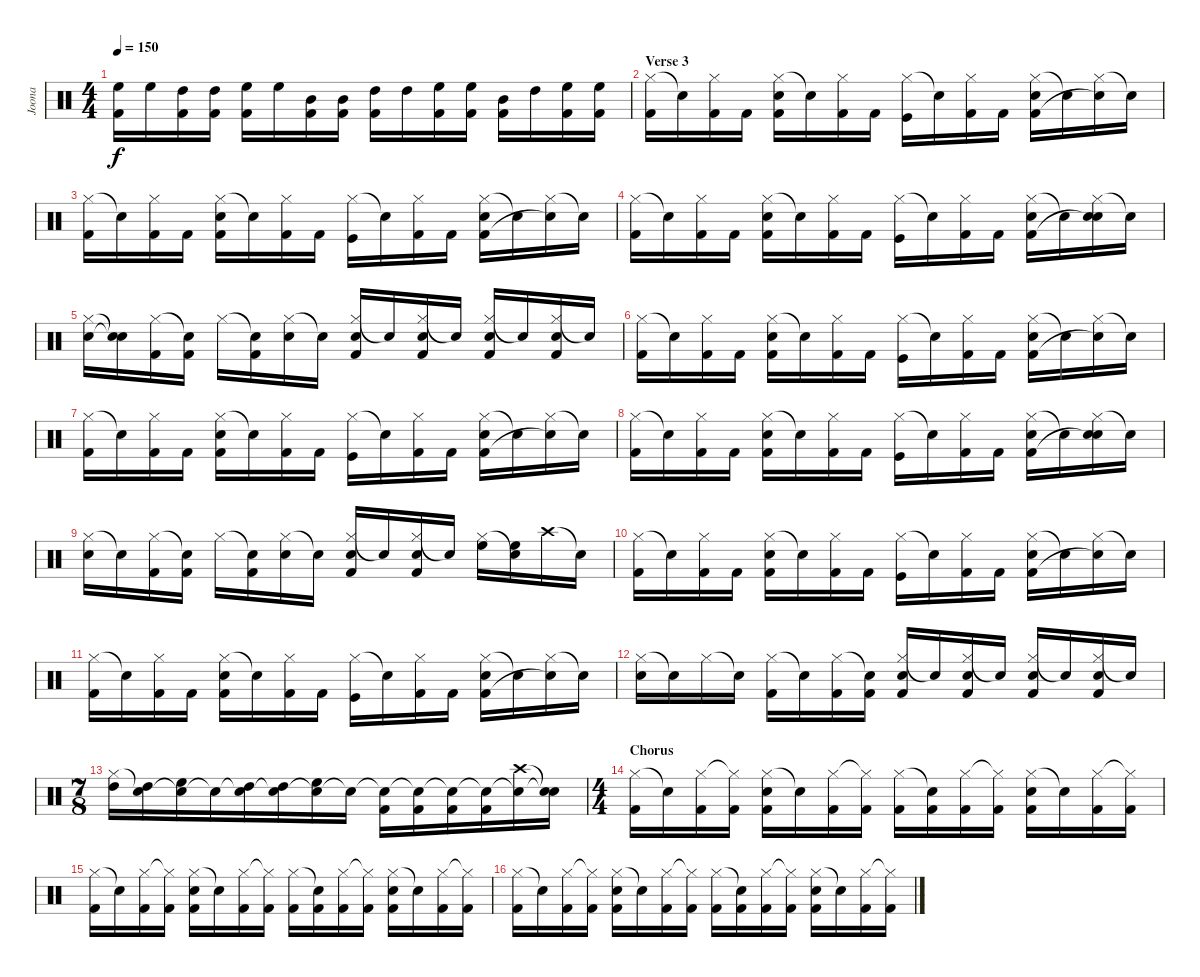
\track ("Joona" "Joona") {instrument percussion}
\staff {score}
\articulation defaults
\ts (4 4)
\tempo 150
\clef neutral
\ks c
("High Floor Tom (hit)" "Kick (hit) 2").16{dy f} "High Floor Tom (hit)".16 ("High Tom (hit)" "Kick (hit) 2").16 ("High Tom (hit)" "Kick (hit) 2").16 ("High Floor Tom (hit)" "Kick (hit) 2").16 "High Floor Tom (hit)".16 ("Mid Tom (hit)" "Kick (hit) 2").16 ("Mid Tom (hit)" "Kick (hit) 2").16 ("High Tom (hit)" "Kick (hit) 2").16 "High Tom (hit)".16 ("High Floor Tom (hit)" "Kick (hit) 2").16 ("High Floor Tom (hit)" "Kick (hit) 2").16 ("Mid Tom (hit)" "Kick (hit) 2").16 "High Tom (hit)".16 ("High Floor Tom (hit)" "Kick (hit) 2").16 ("High Floor Tom (hit)" "Kick (hit) 2").16 |
\section ("" "Verse 3")
("Hi-Hat (closed)" "Kick (hit) 2").16 "Snare (hit)"{t}.16 ("Hi-Hat (closed)" "Kick (hit) 2").16 "Kick (hit) 2".16 ("Hi-Hat (closed)" "Kick (hit) 2" "Snare (hit) 2").16 "Snare (hit)"{t}.16 ("Hi-Hat (closed)" "Kick (hit) 2").16 "Kick (hit) 2".16 ("Hi-Hat (closed)" "Kick (hit)").16 "Snare (hit)"{t}.16 ("Hi-Hat (closed)" "Kick (hit) 2").16 "Kick (hit) 2".16 ("Hi-Hat (closed)" "Kick (hit) 2" "Snare (hit) 2").16 "Snare (hit)"{t}.16 ("Hi-Hat (closed)" "Snare (hit)"{t}).16 "Snare (hit)"{t}.16 |
("Hi-Hat (closed)" "Kick (hit) 2").16 "Snare (hit)"{t}.16 ("Hi-Hat (closed)" "Kick (hit) 2").16 "Kick (hit) 2".16 ("Hi-Hat (closed)" "Kick (hit) 2" "Snare (hit) 2").16 "Snare (hit)"{t}.16 ("Hi-Hat (closed)" "Kick (hit) 2").16 "Kick (hit) 2".16 ("Hi-Hat (closed)" "Kick (hit)").16 "Snare (hit)"{t}.16 ("Hi-Hat (closed)" "Kick (hit) 2").16 "Kick (hit) 2".16 ("Hi-Hat (closed)" "Kick (hit) 2" "Snare (hit) 2").16 "Snare (hit)"{t}.16 ("Hi-Hat (closed)" "Snare (hit)"{t}).16 "Snare (hit)"{t}.16 |
("Hi-Hat (closed)" "Kick (hit) 2").16 "Snare (hit)"{t}.16 ("Hi-Hat (closed)" "Kick (hit) 2").16 "Kick (hit) 2".16 ("Hi-Hat (closed)" "Kick (hit) 2" "Snare (hit) 2").16 "Snare (hit)"{t}.16 ("Hi-Hat (closed)" "Kick (hit) 2").16 "Kick (hit) 2".16 ("Hi-Hat (closed)" "Kick (hit)").16 "Snare (hit)"{t}.16 ("Hi-Hat (closed)" "Kick (hit) 2").16 "Kick (hit) 2".16 ("Hi-Hat (closed)" "Kick (hit) 2" "Snare (hit) 2").16 "Snare (hit)"{t}.16 ("Hi-Hat (closed)" "Snare (hit)"{t} "Snare (hit) 2").16 "Snare (hit)"{t}.16 |
("Hi-Hat (closed)" "Snare (hit) 2").16 ("Snare (hit)"{t} "Snare (hit)"{t}).16 ("Hi-Hat (closed)" "Kick (hit) 2").16 ("Snare (hit)"{t} "Kick (hit) 2").16 "Hi-Hat (closed)".16 ("Snare (hit)"{t} "Kick (hit) 2").16 ("Hi-Hat (closed)" "Snare (hit) 2").16 "Snare (hit)"{t}.16 ("Hi-Hat (closed)" "Kick (hit) 2" "Snare (hit) 2").16 "Snare (hit)"{t}.16 ("Hi-Hat (closed)" "Kick (hit) 2" "Snare (hit) 2").16 "Snare (hit)"{t}.16 ("Hi-Hat (closed)" "Kick (hit) 2" "Snare (hit) 2").16 "Snare (hit)"{t}.16 ("Hi-Hat (closed)" "Kick (hit) 2" "Snare (hit) 2").16 "Snare (hit)"{t}.16 |
("Hi-Hat (closed)" "Kick (hit) 2").16 "Snare (hit)"{t}.16 ("Hi-Hat (closed)" "Kick (hit) 2").16 "Kick (hit) 2".16 ("Hi-Hat (closed)" "Kick (hit) 2" "Snare (hit) 2").16 "Snare (hit)"{t}.16 ("Hi-Hat (closed)" "Kick (hit) 2").16 "Kick (hit) 2".16 ("Hi-Hat (closed)" "Kick (hit)").16 "Snare (hit)"{t}.16 ("Hi-Hat (closed)" "Kick (hit) 2").16 "Kick (hit) 2".16 ("Hi-Hat (closed)" "Kick (hit) 2" "Snare (hit) 2").16 "Snare (hit)"{t}.16 ("Hi-Hat (closed)" "Snare (hit)"{t}).16 "Snare (hit)"{t}.16 |
("Hi-Hat (closed)" "Kick (hit) 2").16 "Snare (hit)"{t}.16 ("Hi-Hat (closed)" "Kick (hit) 2").16 "Kick (hit) 2".16 ("Hi-Hat (closed)" "Kick (hit) 2" "Snare (hit) 2").16 "Snare (hit)"{t}.16 ("Hi-Hat (closed)" "Kick (hit) 2").16 "Kick (hit) 2".16 ("Hi-Hat (closed)" "Kick (hit)").16 "Snare (hit)"{t}.16 ("Hi-Hat (closed)" "Kick (hit) 2").16 "Kick (hit) 2".16 ("Hi-Hat (closed)" "Kick (hit) 2" "Snare (hit) 2").16 "Snare (hit)"{t}.16 ("Hi-Hat (closed)" "Snare (hit)"{t}).16 "Snare (hit)"{t}.16 |
("Hi-Hat (closed)" "Kick (hit) 2").16 "Snare (hit)"{t}.16 ("Hi-Hat (closed)" "Kick (hit) 2").16 "Kick (hit) 2".16 ("Hi-Hat (closed)" "Kick (hit) 2" "Snare (hit) 2").16 "Snare (hit)"{t}.16 ("Hi-Hat (closed)" "Kick (hit) 2").16 "Kick (hit) 2".16 ("Hi-Hat (closed)" "Kick (hit)").16 "Snare (hit)"{t}.16 ("Hi-Hat (closed)" "Kick (hit) 2").16 "Kick (hit) 2".16 ("Hi-Hat (closed)" "Kick (hit) 2" "Snare (hit) 2").16 "Snare (hit)"{t}.16 ("Hi-Hat (closed)" "Snare (hit)"{t} "Snare (hit) 2").16 "Snare (hit)"{t}.16 |
("Hi-Hat (closed)" "Snare (hit) 2").16 "Snare (hit)"{t}.16 ("Hi-Hat (closed)" "Kick (hit) 2").16 ("Snare (hit)"{t} "Kick (hit) 2").16 "Hi-Hat (closed)".16 ("Snare (hit)"{t} "Kick (hit) 2").16 ("Hi-Hat (closed)" "Snare (hit) 2").16 "Snare (hit)"{t}.16 ("Hi-Hat (closed)" "Kick (hit) 2" "Snare (hit) 2").16 "Snare (hit)"{t}.16 ("Hi-Hat (closed)" "Kick (hit) 2" "Snare (hit) 2").16 "Snare (hit)"{t}.16 ("Hi-Hat (closed)" "High Floor Tom (hit)").16 ("Snare (hit)"{t} "High Floor Tom (hit)").16 "Crash high (hit)".16 "Snare (hit)"{t}.16 |
("Hi-Hat (closed)" "Kick (hit) 2").16 "Snare (hit)"{t}.16 ("Hi-Hat (closed)" "Kick (hit) 2").16 "Kick (hit) 2".16 ("Hi-Hat (closed)" "Kick (hit) 2" "Snare (hit) 2").16 "Snare (hit)"{t}.16 ("Hi-Hat (closed)" "Kick (hit) 2").16 "Kick (hit) 2".16 ("Hi-Hat (closed)" "Kick (hit)").16 "Snare (hit)"{t}.16 ("Hi-Hat (closed)" "Kick (hit) 2").16 "Kick (hit) 2".16 ("Hi-Hat (closed)" "Kick (hit) 2" "Snare (hit) 2").16 "Snare (hit)"{t}.16 ("Hi-Hat (closed)" "Snare (hit)"{t}).16 "Snare (hit)"{t}.16 |
("Hi-Hat (closed)" "Kick (hit) 2").16 "Snare (hit)"{t}.16 ("Hi-Hat (closed)" "Kick (hit) 2").16 "Kick (hit) 2".16 ("Hi-Hat (closed)" "Kick (hit) 2" "Snare (hit) 2").16 "Snare (hit)"{t}.16 ("Hi-Hat (closed)" "Kick (hit) 2").16 "Kick (hit) 2".16 ("Hi-Hat (closed)" "Kick (hit)").16 "Snare (hit)"{t}.16 ("Hi-Hat (closed)" "Kick (hit) 2").16 "Kick (hit) 2".16 ("Hi-Hat (closed)" "Kick (hit) 2" "Snare (hit) 2").16 "Snare (hit)"{t}.16 ("Hi-Hat (closed)" "Snare (hit)"{t}).16 "Snare (hit)"{t}.16 |
("Hi-Hat (closed)" "Snare (hit) 2").16 "Snare (hit)"{t}.16 "Hi-Hat (closed)".16 "Snare (hit)"{t}.16 ("Hi-Hat (closed)" "Kick (hit) 2").16 "Snare (hit)"{t}.16 ("Hi-Hat (closed)" "Kick (hit) 2").16 ("Snare (hit)"{t} "Kick (hit) 2").16 ("Hi-Hat (closed)" "Kick (hit) 2" "Snare (hit) 2").16 "Snare (hit)"{t}.16 ("Hi-Hat (closed)" "Kick (hit) 2" "Snare (hit) 2").16 "Snare (hit)"{t}.16 ("Hi-Hat (closed)" "Kick (hit) 2" "Snare (hit) 2").16 "Snare (hit)"{t}.16 ("Hi-Hat (closed)" "Kick (hit) 2" "Snare (hit) 2").16 "Snare (hit)"{t}.16 |
\ts (7 8)
("Hi-Hat (closed)" "High Tom (hit)").16 ("Snare (hit)"{t} "High Tom (hit)").16 ("Snare (hit)"{t} "High Floor Tom (hit)").16 "Snare (hit)"{t}.16 ("Snare (hit)"{t} "High Tom (hit)").16 ("Snare (hit)"{t} "High Tom (hit)").16 ("Snare (hit)"{t} "High Floor Tom (hit)").16 "Snare (hit)"{t}.16 ("Snare (hit)"{t} "Kick (hit) 2").16 ("Snare (hit)"{t} "Kick (hit) 2").16 ("Snare (hit)"{t} "Kick (hit) 2").16 ("Snare (hit)"{t} "Kick (hit) 2").16 ("Snare (hit)"{t} "Crash high (hit)").16 ("Snare (hit)"{t} "Snare (hit)"{t}).16 |
\ts (4 4)
\section ("" "Chorus")
("Hi-Hat (closed)" "Kick (hit) 2").16 "Snare (hit)"{t}.16 ("Hi-Hat (closed)" "Kick (hit) 2").16 ("Hi-Hat (closed)"{t} "Kick (hit) 2").16 ("Hi-Hat (closed)" "Kick (hit) 2" "Snare (hit) 2").16 "Snare (hit)"{t}.16 ("Hi-Hat (closed)" "Kick (hit) 2").16 ("Hi-Hat (closed)"{t} "Kick (hit) 2").16 ("Hi-Hat (closed)" "Kick (hit) 2").16 ("Snare (hit)"{t} "Kick (hit) 2").16 ("Hi-Hat (closed)" "Kick (hit) 2").16 ("Hi-Hat (closed)"{t} "Kick (hit) 2").16 ("Hi-Hat (closed)" "Kick (hit) 2" "Snare (hit) 2").16 "Snare (hit)"{t}.16 ("Hi-Hat (closed)" "Kick (hit) 2").16 ("Hi-Hat (closed)"{t} "Kick (hit) 2").16 |
("Hi-Hat (closed)" "Kick (hit) 2").16 "Snare (hit)"{t}.16 ("Hi-Hat (closed)" "Kick (hit) 2").16 ("Hi-Hat (closed)"{t} "Kick (hit) 2").16 ("Hi-Hat (closed)" "Kick (hit) 2" "Snare (hit) 2").16 "Snare (hit)"{t}.16 ("Hi-Hat (closed)" "Kick (hit) 2").16 ("Hi-Hat (closed)"{t} "Kick (hit) 2").16 ("Hi-Hat (closed)" "Kick (hit) 2").16 ("Snare (hit)"{t} "Kick (hit) 2").16 ("Hi-Hat (closed)" "Kick (hit) 2").16 ("Hi-Hat (closed)"{t} "Kick (hit) 2").16 ("Hi-Hat (closed)" "Kick (hit) 2" "Snare (hit) 2").16 "Snare (hit)"{t}.16 ("Hi-Hat (closed)" "Kick (hit) 2").16 ("Hi-Hat (closed)"{t} "Kick (hit) 2").16 |
("Hi-Hat (closed)" "Kick (hit) 2").16 "Snare (hit)"{t}.16 ("Hi-Hat (closed)" "Kick (hit) 2").16 ("Hi-Hat (closed)"{t} "Kick (hit) 2").16 ("Hi-Hat (closed)" "Kick (hit) 2" "Snare (hit) 2").16 "Snare (hit)"{t}.16 ("Hi-Hat (closed)" "Kick (hit) 2").16 ("Hi-Hat (closed)"{t} "Kick (hit) 2").16 ("Hi-Hat (closed)" "Kick (hit) 2").16 ("Snare (hit)"{t} "Kick (hit) 2").16 ("Hi-Hat (closed)" "Kick (hit) 2").16 ("Hi-Hat (closed)"{t} "Kick (hit) 2").16 ("Hi-Hat (closed)" "Kick (hit) 2" "Snare (hit) 2").16 "Snare (hit)"{t}.16 ("Hi-Hat (closed)" "Kick (hit) 2").16 ("Hi-Hat (closed)"{t} "Kick (hit) 2").16
